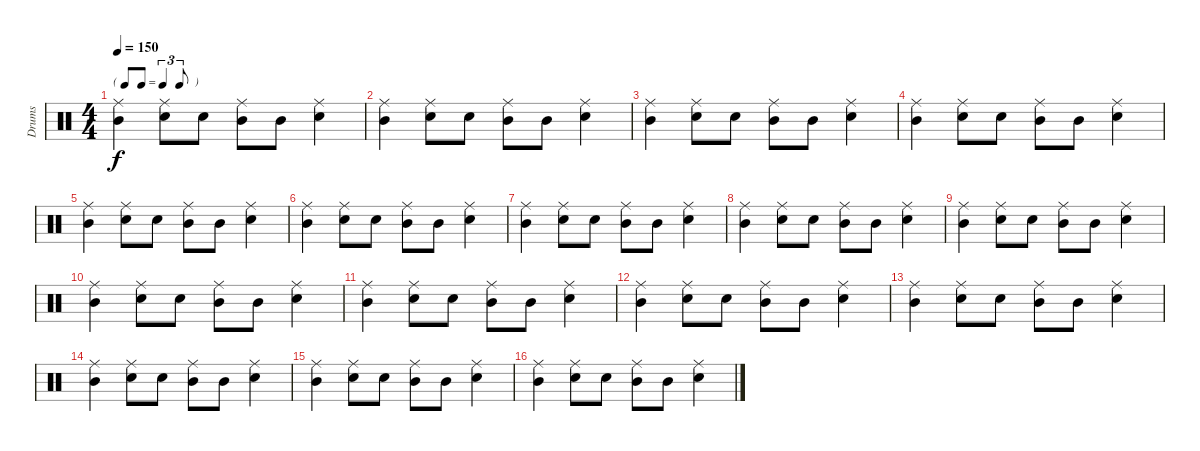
\track ("Drums" "Drums") {instrument percussion}
\staff {score}
\articulation defaults
\ts (4 4)
\tf triplet8th
\tempo 150
\clef neutral
\ks c
("Mid Tom (hit)" "Ride (middle)").4{dy f} ("Snare (hit) 2" "Ride (middle)").8 "Snare (hit) 2".8 ("Mid Tom (hit)" "Ride (middle)").8 "Mid Tom (hit)".8 ("Snare (hit) 2" "Ride (middle)").4 |
("Mid Tom (hit)" "Ride (middle)").4 ("Snare (hit) 2" "Ride (middle)").8 "Snare (hit) 2".8 ("Mid Tom (hit)" "Ride (middle)").8 "Mid Tom (hit)".8 ("Snare (hit) 2" "Ride (middle)").4 |
("Mid Tom (hit)" "Ride (middle)").4 ("Snare (hit) 2" "Ride (middle)").8 "Snare (hit) 2".8 ("Mid Tom (hit)" "Ride (middle)").8 "Mid Tom (hit)".8 ("Snare (hit) 2" "Ride (middle)").4 |
("Mid Tom (hit)" "Ride (middle)").4 ("Snare (hit) 2" "Ride (middle)").8 "Snare (hit) 2".8 ("Mid Tom (hit)" "Ride (middle)").8 "Mid Tom (hit)".8 ("Snare (hit) 2" "Ride (middle)").4 |
("Mid Tom (hit)" "Ride (middle)").4 ("Snare (hit) 2" "Ride (middle)").8 "Snare (hit) 2".8 ("Mid Tom (hit)" "Ride (middle)").8 "Mid Tom (hit)".8 ("Snare (hit) 2" "Ride (middle)").4 |
("Mid Tom (hit)" "Ride (middle)").4 ("Snare (hit) 2" "Ride (middle)").8 "Snare (hit) 2".8 ("Mid Tom (hit)" "Ride (middle)").8 "Mid Tom (hit)".8 ("Snare (hit) 2" "Ride (middle)").4 |
("Mid Tom (hit)" "Ride (middle)").4 ("Snare (hit) 2" "Ride (middle)").8 "Snare (hit) 2".8 ("Mid Tom (hit)" "Ride (middle)").8 "Mid Tom (hit)".8 ("Snare (hit) 2" "Ride (middle)").4 |
("Mid Tom (hit)" "Ride (middle)").4 ("Snare (hit) 2" "Ride (middle)").8 "Snare (hit) 2".8 ("Mid Tom (hit)" "Ride (middle)").8 "Mid Tom (hit)".8 ("Snare (hit) 2" "Ride (middle)").4 |
("Mid Tom (hit)" "Ride (middle)").4 ("Snare (hit) 2" "Ride (middle)").8 "Snare (hit) 2".8 ("Mid Tom (hit)" "Ride (middle)").8 "Mid Tom (hit)".8 ("Snare (hit) 2" "Ride (middle)").4 |
("Mid Tom (hit)" "Ride (middle)").4 ("Snare (hit) 2" "Ride (middle)").8 "Snare (hit) 2".8 ("Mid Tom (hit)" "Ride (middle)").8 "Mid Tom (hit)".8 ("Snare (hit) 2" "Ride (middle)").4 |
("Mid Tom (hit)" "Ride (middle)").4 ("Snare (hit) 2" "Ride (middle)").8 "Snare (hit) 2".8 ("Mid Tom (hit)" "Ride (middle)").8 "Mid Tom (hit)".8 ("Snare (hit) 2" "Ride (middle)").4 |
("Mid Tom (hit)" "Ride (middle)").4 ("Snare (hit) 2" "Ride (middle)").8 "Snare (hit) 2".8 ("Mid Tom (hit)" "Ride (middle)").8 "Mid Tom (hit)".8 ("Snare (hit) 2" "Ride (middle)").4 |
("Mid Tom (hit)" "Ride (middle)").4 ("Snare (hit) 2" "Ride (middle)").8 "Snare (hit) 2".8 ("Mid Tom (hit)" "Ride (middle)").8 "Mid Tom (hit)".8 ("Snare (hit) 2" "Ride (middle)").4 |
("Mid Tom (hit)" "Ride (middle)").4 ("Snare (hit) 2" "Ride (middle)").8 "Snare (hit) 2".8 ("Mid Tom (hit)" "Ride (middle)").8 "Mid Tom (hit)".8 ("Snare (hit) 2" "Ride (middle)").4 |
("Mid Tom (hit)" "Ride (middle)").4 ("Snare (hit) 2" "Ride (middle)").8 "Snare (hit) 2".8 ("Mid Tom (hit)" "Ride (middle)").8 "Mid Tom (hit)".8 ("Snare (hit) 2" "Ride (middle)").4 |
("Mid Tom (hit)" "Ride (middle)").4 ("Snare (hit) 2" "Ride (middle)").8 "Snare (hit) 2".8 ("Mid Tom (hit)" "Ride (middle)").8 "Mid Tom (hit)".8 ("Snare (hit) 2" "Ride (middle)").4
